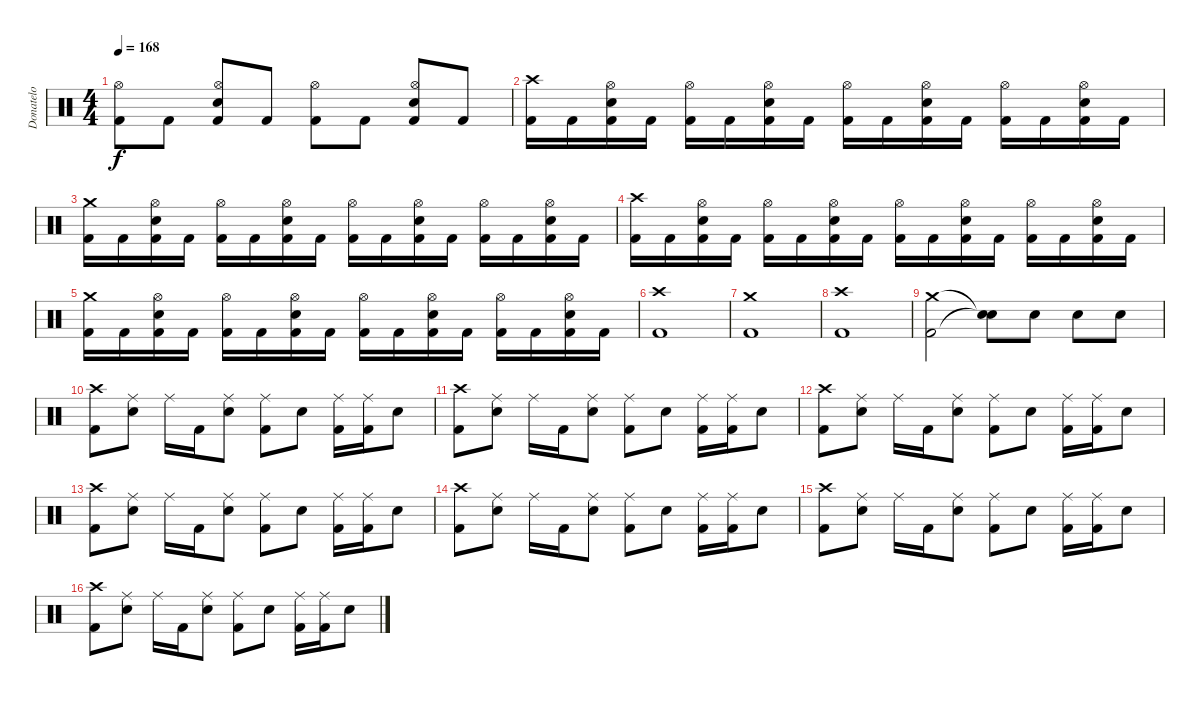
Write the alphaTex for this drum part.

\track ("Donatelo" "Donatelo") {instrument percussion}
\staff {score}
\articulation defaults
\ts (4 4)
\tempo 168
\clef neutral
\ks c
("Kick (hit) 2" "Hi-Hat (open)").8{dy f} "Kick (hit) 2".8 ("Kick (hit) 2" "Electric Snare (hit)" "Hi-Hat (open)").8 "Kick (hit) 2".8 ("Kick (hit) 2" "Hi-Hat (open)").8 "Kick (hit) 2".8 ("Kick (hit) 2" "Electric Snare (hit)" "Hi-Hat (open)").8 "Kick (hit) 2".8 |
("Kick (hit) 2" "Crash high (hit)").16 "Kick (hit) 2".16 ("Kick (hit) 2" "Electric Snare (hit)" "Hi-Hat (open)").16 "Kick (hit) 2".16 ("Kick (hit) 2" "Hi-Hat (open)").16 "Kick (hit) 2".16 ("Kick (hit) 2" "Electric Snare (hit)" "Hi-Hat (open)").16 "Kick (hit) 2".16 ("Kick (hit) 2" "Hi-Hat (open)").16 "Kick (hit) 2".16 ("Kick (hit) 2" "Electric Snare (hit)" "Hi-Hat (open)").16 "Kick (hit) 2".16 ("Kick (hit) 2" "Hi-Hat (open)").16 "Kick (hit) 2".16 ("Kick (hit) 2" "Electric Snare (hit)" "Hi-Hat (open)").16 "Kick (hit) 2".16 |
("Kick (hit) 2" "Crash medium (hit)").16 "Kick (hit) 2".16 ("Kick (hit) 2" "Electric Snare (hit)" "Hi-Hat (open)").16 "Kick (hit) 2".16 ("Kick (hit) 2" "Hi-Hat (open)").16 "Kick (hit) 2".16 ("Kick (hit) 2" "Electric Snare (hit)" "Hi-Hat (open)").16 "Kick (hit) 2".16 ("Kick (hit) 2" "Hi-Hat (open)").16 "Kick (hit) 2".16 ("Kick (hit) 2" "Electric Snare (hit)" "Hi-Hat (open)").16 "Kick (hit) 2".16 ("Kick (hit) 2" "Hi-Hat (open)").16 "Kick (hit) 2".16 ("Kick (hit) 2" "Electric Snare (hit)" "Hi-Hat (open)").16 "Kick (hit) 2".16 |
("Kick (hit) 2" "Crash high (hit)").16 "Kick (hit) 2".16 ("Kick (hit) 2" "Electric Snare (hit)" "Hi-Hat (open)").16 "Kick (hit) 2".16 ("Kick (hit) 2" "Hi-Hat (open)").16 "Kick (hit) 2".16 ("Kick (hit) 2" "Electric Snare (hit)" "Hi-Hat (open)").16 "Kick (hit) 2".16 ("Kick (hit) 2" "Hi-Hat (open)").16 "Kick (hit) 2".16 ("Kick (hit) 2" "Electric Snare (hit)" "Hi-Hat (open)").16 "Kick (hit) 2".16 ("Kick (hit) 2" "Hi-Hat (open)").16 "Kick (hit) 2".16 ("Kick (hit) 2" "Electric Snare (hit)" "Hi-Hat (open)").16 "Kick (hit) 2".16 |
("Kick (hit) 2" "Crash medium (hit)").16 "Kick (hit) 2".16 ("Kick (hit) 2" "Electric Snare (hit)" "Hi-Hat (open)").16 "Kick (hit) 2".16 ("Kick (hit) 2" "Hi-Hat (open)").16 "Kick (hit) 2".16 ("Kick (hit) 2" "Electric Snare (hit)" "Hi-Hat (open)").16 "Kick (hit) 2".16 ("Kick (hit) 2" "Hi-Hat (open)").16 "Kick (hit) 2".16 ("Kick (hit) 2" "Electric Snare (hit)" "Hi-Hat (open)").16 "Kick (hit) 2".16 ("Kick (hit) 2" "Hi-Hat (open)").16 "Kick (hit) 2".16 ("Kick (hit) 2" "Electric Snare (hit)" "Hi-Hat (open)").16 "Kick (hit) 2".16 |
("Kick (hit) 2" "Crash high (hit)").1 |
("Kick (hit) 2" "Crash medium (hit)").1 |
("Kick (hit) 2" "Crash high (hit)").1 |
("Kick (hit) 2" "Crash medium (hit)").2 ("Snare (hit)"{t} "Snare (hit)"{t}).8 "Electric Snare (hit)".8 "Electric Snare (hit)".8 "Electric Snare (hit)".8 |
("Kick (hit) 2" "Crash high (hit)").8 ("Electric Snare (hit)" "Ride (middle)").8 "Ride (middle)".16 "Kick (hit) 2".16 ("Electric Snare (hit)" "Ride (middle)").8 ("Kick (hit) 2" "Ride (middle)").8 "Electric Snare (hit)".8 ("Kick (hit) 2" "Ride (middle)").16 ("Kick (hit) 2" "Ride (middle)").16 "Electric Snare (hit)".8 |
("Kick (hit) 2" "Crash high (hit)").8 ("Electric Snare (hit)" "Ride (middle)").8 "Ride (middle)".16 "Kick (hit) 2".16 ("Electric Snare (hit)" "Ride (middle)").8 ("Kick (hit) 2" "Ride (middle)").8 "Electric Snare (hit)".8 ("Kick (hit) 2" "Ride (middle)").16 ("Kick (hit) 2" "Ride (middle)").16 "Electric Snare (hit)".8 |
("Kick (hit) 2" "Crash high (hit)").8 ("Electric Snare (hit)" "Ride (middle)").8 "Ride (middle)".16 "Kick (hit) 2".16 ("Electric Snare (hit)" "Ride (middle)").8 ("Kick (hit) 2" "Ride (middle)").8 "Electric Snare (hit)".8 ("Kick (hit) 2" "Ride (middle)").16 ("Kick (hit) 2" "Ride (middle)").16 "Electric Snare (hit)".8 |
("Kick (hit) 2" "Crash high (hit)").8 ("Electric Snare (hit)" "Ride (middle)").8 "Ride (middle)".16 "Kick (hit) 2".16 ("Electric Snare (hit)" "Ride (middle)").8 ("Kick (hit) 2" "Ride (middle)").8 "Electric Snare (hit)".8 ("Kick (hit) 2" "Ride (middle)").16 ("Kick (hit) 2" "Ride (middle)").16 "Electric Snare (hit)".8 |
("Kick (hit) 2" "Crash high (hit)").8 ("Electric Snare (hit)" "Ride (middle)").8 "Ride (middle)".16 "Kick (hit) 2".16 ("Electric Snare (hit)" "Ride (middle)").8 ("Kick (hit) 2" "Ride (middle)").8 "Electric Snare (hit)".8 ("Kick (hit) 2" "Ride (middle)").16 ("Kick (hit) 2" "Ride (middle)").16 "Electric Snare (hit)".8 |
("Kick (hit) 2" "Crash high (hit)").8 ("Electric Snare (hit)" "Ride (middle)").8 "Ride (middle)".16 "Kick (hit) 2".16 ("Electric Snare (hit)" "Ride (middle)").8 ("Kick (hit) 2" "Ride (middle)").8 "Electric Snare (hit)".8 ("Kick (hit) 2" "Ride (middle)").16 ("Kick (hit) 2" "Ride (middle)").16 "Electric Snare (hit)".8 |
("Kick (hit) 2" "Crash high (hit)").8 ("Electric Snare (hit)" "Ride (middle)").8 "Ride (middle)".16 "Kick (hit) 2".16 ("Electric Snare (hit)" "Ride (middle)").8 ("Kick (hit) 2" "Ride (middle)").8 "Electric Snare (hit)".8 ("Kick (hit) 2" "Ride (middle)").16 ("Kick (hit) 2" "Ride (middle)").16 "Electric Snare (hit)".8
